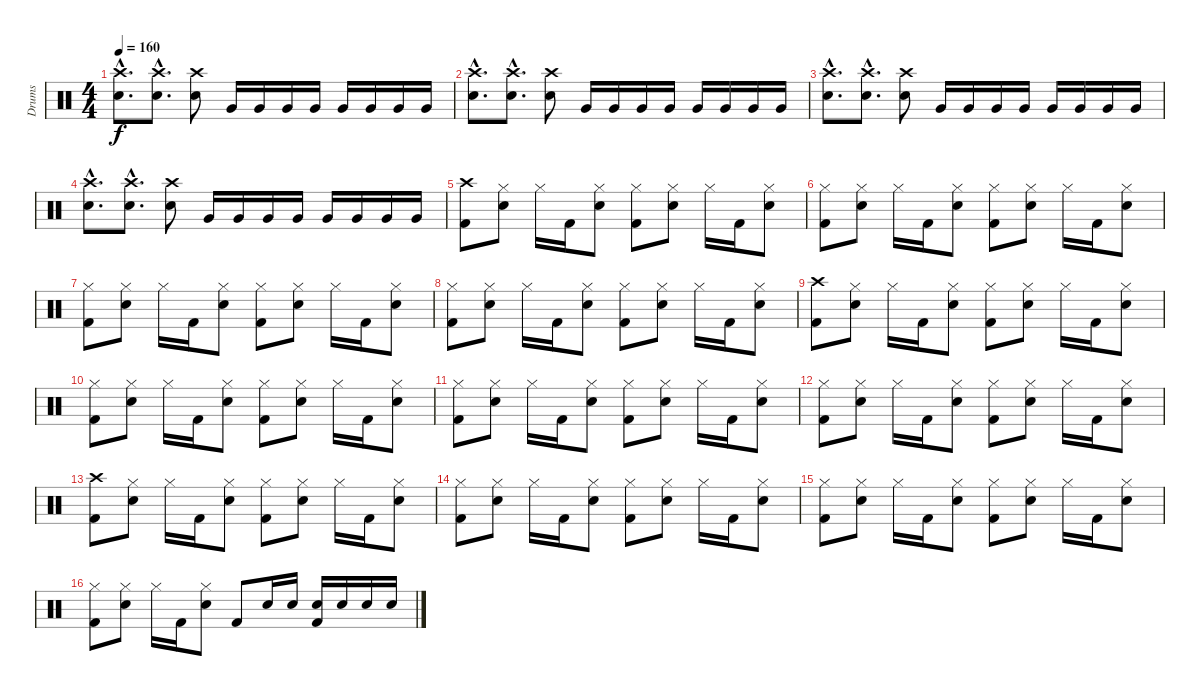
\track ("Drums" "Drums") {instrument percussion}
\staff {score}
\articulation defaults
\ts (4 4)
\tempo 160
\clef neutral
\ks c
("Crash high (hit)"{hac} "Snare (hit) 2"{hac}).8{d dy f} ("Crash high (hit)"{hac} "Snare (hit) 2"{hac}).8{d} ("Crash high (hit)" "Snare (hit) 2").8 "Very Low Tom (hit)".16 "Very Low Tom (hit)".16 "Very Low Tom (hit)".16 "Very Low Tom (hit)".16 "Very Low Tom (hit)".16 "Very Low Tom (hit)".16 "Very Low Tom (hit)".16 "Very Low Tom (hit)".16 |
("Crash high (hit)"{hac} "Snare (hit) 2"{hac}).8{d} ("Crash high (hit)"{hac} "Snare (hit) 2"{hac}).8{d} ("Crash high (hit)" "Snare (hit) 2").8 "Very Low Tom (hit)".16 "Very Low Tom (hit)".16 "Very Low Tom (hit)".16 "Very Low Tom (hit)".16 "Very Low Tom (hit)".16 "Very Low Tom (hit)".16 "Very Low Tom (hit)".16 "Very Low Tom (hit)".16 |
("Crash high (hit)"{hac} "Snare (hit) 2"{hac}).8{d} ("Crash high (hit)"{hac} "Snare (hit) 2"{hac}).8{d} ("Crash high (hit)" "Snare (hit) 2").8 "Very Low Tom (hit)".16 "Very Low Tom (hit)".16 "Very Low Tom (hit)".16 "Very Low Tom (hit)".16 "Very Low Tom (hit)".16 "Very Low Tom (hit)".16 "Very Low Tom (hit)".16 "Very Low Tom (hit)".16 |
("Crash high (hit)"{hac} "Snare (hit) 2"{hac}).8{d} ("Crash high (hit)"{hac} "Snare (hit) 2"{hac}).8{d} ("Crash high (hit)" "Snare (hit) 2").8 "Very Low Tom (hit)".16 "Very Low Tom (hit)".16 "Very Low Tom (hit)".16 "Very Low Tom (hit)".16 "Very Low Tom (hit)".16 "Very Low Tom (hit)".16 "Very Low Tom (hit)".16 "Very Low Tom (hit)".16 |
("Crash high (hit)" "Kick (hit) 2").8 ("Hi-Hat (closed)" "Snare (hit) 2").8 "Hi-Hat (closed)".16 "Kick (hit) 2".16 ("Hi-Hat (closed)" "Snare (hit) 2").8 ("Hi-Hat (closed)" "Kick (hit) 2").8 ("Hi-Hat (closed)" "Snare (hit) 2").8 "Hi-Hat (closed)".16 "Kick (hit) 2".16 ("Hi-Hat (closed)" "Snare (hit) 2").8 |
("Hi-Hat (closed)" "Kick (hit) 2").8 ("Hi-Hat (closed)" "Snare (hit) 2").8 "Hi-Hat (closed)".16 "Kick (hit) 2".16 ("Hi-Hat (closed)" "Snare (hit) 2").8 ("Hi-Hat (closed)" "Kick (hit) 2").8 ("Hi-Hat (closed)" "Snare (hit) 2").8 "Hi-Hat (closed)".16 "Kick (hit) 2".16 ("Hi-Hat (closed)" "Snare (hit) 2").8 |
("Hi-Hat (closed)" "Kick (hit) 2").8 ("Hi-Hat (closed)" "Snare (hit) 2").8 "Hi-Hat (closed)".16 "Kick (hit) 2".16 ("Hi-Hat (closed)" "Snare (hit) 2").8 ("Hi-Hat (closed)" "Kick (hit) 2").8 ("Hi-Hat (closed)" "Snare (hit) 2").8 "Hi-Hat (closed)".16 "Kick (hit) 2".16 ("Hi-Hat (closed)" "Snare (hit) 2").8 |
("Hi-Hat (closed)" "Kick (hit) 2").8 ("Hi-Hat (closed)" "Snare (hit) 2").8 "Hi-Hat (closed)".16 "Kick (hit) 2".16 ("Hi-Hat (closed)" "Snare (hit) 2").8 ("Hi-Hat (closed)" "Kick (hit) 2").8 ("Hi-Hat (closed)" "Snare (hit) 2").8 "Hi-Hat (closed)".16 "Kick (hit) 2".16 ("Hi-Hat (closed)" "Snare (hit) 2").8 |
("Crash high (hit)" "Kick (hit) 2").8 ("Hi-Hat (closed)" "Snare (hit) 2").8 "Hi-Hat (closed)".16 "Kick (hit) 2".16 ("Hi-Hat (closed)" "Snare (hit) 2").8 ("Hi-Hat (closed)" "Kick (hit) 2").8 ("Hi-Hat (closed)" "Snare (hit) 2").8 "Hi-Hat (closed)".16 "Kick (hit) 2".16 ("Hi-Hat (closed)" "Snare (hit) 2").8 |
("Hi-Hat (closed)" "Kick (hit) 2").8 ("Hi-Hat (closed)" "Snare (hit) 2").8 "Hi-Hat (closed)".16 "Kick (hit) 2".16 ("Hi-Hat (closed)" "Snare (hit) 2").8 ("Hi-Hat (closed)" "Kick (hit) 2").8 ("Hi-Hat (closed)" "Snare (hit) 2").8 "Hi-Hat (closed)".16 "Kick (hit) 2".16 ("Hi-Hat (closed)" "Snare (hit) 2").8 |
("Hi-Hat (closed)" "Kick (hit) 2").8 ("Hi-Hat (closed)" "Snare (hit) 2").8 "Hi-Hat (closed)".16 "Kick (hit) 2".16 ("Hi-Hat (closed)" "Snare (hit) 2").8 ("Hi-Hat (closed)" "Kick (hit) 2").8 ("Hi-Hat (closed)" "Snare (hit) 2").8 "Hi-Hat (closed)".16 "Kick (hit) 2".16 ("Hi-Hat (closed)" "Snare (hit) 2").8 |
("Hi-Hat (closed)" "Kick (hit) 2").8 ("Hi-Hat (closed)" "Snare (hit) 2").8 "Hi-Hat (closed)".16 "Kick (hit) 2".16 ("Hi-Hat (closed)" "Snare (hit) 2").8 ("Hi-Hat (closed)" "Kick (hit) 2").8 ("Hi-Hat (closed)" "Snare (hit) 2").8 "Hi-Hat (closed)".16 "Kick (hit) 2".16 ("Hi-Hat (closed)" "Snare (hit) 2").8 |
("Crash high (hit)" "Kick (hit) 2").8 ("Hi-Hat (closed)" "Snare (hit) 2").8 "Hi-Hat (closed)".16 "Kick (hit) 2".16 ("Hi-Hat (closed)" "Snare (hit) 2").8 ("Hi-Hat (closed)" "Kick (hit) 2").8 ("Hi-Hat (closed)" "Snare (hit) 2").8 "Hi-Hat (closed)".16 "Kick (hit) 2".16 ("Hi-Hat (closed)" "Snare (hit) 2").8 |
("Hi-Hat (closed)" "Kick (hit) 2").8 ("Hi-Hat (closed)" "Snare (hit) 2").8 "Hi-Hat (closed)".16 "Kick (hit) 2".16 ("Hi-Hat (closed)" "Snare (hit) 2").8 ("Hi-Hat (closed)" "Kick (hit) 2").8 ("Hi-Hat (closed)" "Snare (hit) 2").8 "Hi-Hat (closed)".16 "Kick (hit) 2".16 ("Hi-Hat (closed)" "Snare (hit) 2").8 |
("Hi-Hat (closed)" "Kick (hit) 2").8 ("Hi-Hat (closed)" "Snare (hit) 2").8 "Hi-Hat (closed)".16 "Kick (hit) 2".16 ("Hi-Hat (closed)" "Snare (hit) 2").8 ("Hi-Hat (closed)" "Kick (hit) 2").8 ("Hi-Hat (closed)" "Snare (hit) 2").8 "Hi-Hat (closed)".16 "Kick (hit) 2".16 ("Hi-Hat (closed)" "Snare (hit) 2").8 |
("Hi-Hat (closed)" "Kick (hit) 2").8 ("Hi-Hat (closed)" "Snare (hit) 2").8 "Hi-Hat (closed)".16 "Kick (hit) 2".16 ("Hi-Hat (closed)" "Snare (hit) 2").8 "Kick (hit) 2".8 "Snare (hit) 2".16 "Snare (hit) 2".16 ("Snare (hit) 2" "Kick (hit) 2").16 "Snare (hit) 2".16 "Snare (hit) 2".16 "Snare (hit) 2".16
